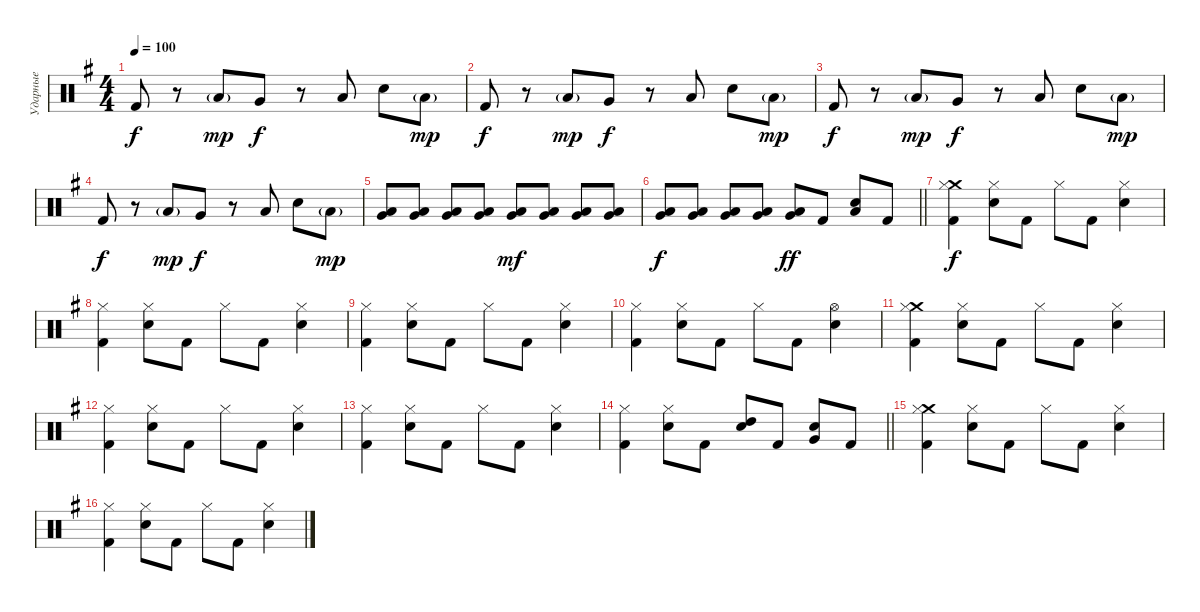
\track ("Ударные" "Ударные") {instrument percussion}
\staff {score}
\articulation defaults
\ts (4 4)
\tempo 100
\clef neutral
\ks eminor "Kick (hit) 2".8{dy f}
r.8 "Low Tom (hit)"{g}.8{dy mp} "Very Low Tom (hit)".8{dy f} r.8 "Low Floor Tom (hit)".8 "Electric Snare (hit)".8 "Low Floor Tom (hit)"{g}.8{dy mp} |
"Kick (hit) 2".8{dy f} r.8 "Low Tom (hit)"{g}.8{dy mp} "Very Low Tom (hit)".8{dy f} r.8 "Low Floor Tom (hit)".8 "Electric Snare (hit)".8 "Low Floor Tom (hit)"{g}.8{dy mp} |
"Kick (hit) 2".8{dy f} r.8 "Low Tom (hit)"{g}.8{dy mp} "Very Low Tom (hit)".8{dy f} r.8 "Low Floor Tom (hit)".8 "Electric Snare (hit)".8 "Low Floor Tom (hit)"{g}.8{dy mp} |
"Kick (hit) 2".8{dy f} r.8 "Low Tom (hit)"{g}.8{dy mp} "Very Low Tom (hit)".8{dy f} r.8 "Low Floor Tom (hit)".8 "Electric Snare (hit)".8 "Low Floor Tom (hit)"{g}.8{dy mp} |
("Low Floor Tom (hit)" "Very Low Tom (hit)").8 ("Low Floor Tom (hit)" "Very Low Tom (hit)").8 ("Low Floor Tom (hit)" "Very Low Tom (hit)").8 ("Low Floor Tom (hit)" "Very Low Tom (hit)").8 ("Low Floor Tom (hit)" "Very Low Tom (hit)").8{dy mf} ("Low Floor Tom (hit)" "Very Low Tom (hit)").8 ("Low Floor Tom (hit)" "Very Low Tom (hit)").8 ("Low Floor Tom (hit)" "Very Low Tom (hit)").8 |
\barLineRight lightlight
("Low Floor Tom (hit)" "Very Low Tom (hit)").8{dy f} ("Low Floor Tom (hit)" "Very Low Tom (hit)").8 ("Low Floor Tom (hit)" "Very Low Tom (hit)").8 ("Low Floor Tom (hit)" "Very Low Tom (hit)").8 ("Low Floor Tom (hit)" "Very Low Tom (hit)").8{dy ff} "Kick (hit) 2".8 ("Low Floor Tom (hit)" "Electric Snare (hit)").8 "Kick (hit) 2".8 |
\section ("" "")
("Crash medium (hit)" "Hi-Hat (closed)" "Kick (hit) 2").4{dy f} ("Hi-Hat (closed)" "Electric Snare (hit)").8 "Kick (hit) 2".8 "Hi-Hat (closed)".8 "Kick (hit) 2".8 ("Hi-Hat (closed)" "Electric Snare (hit)").4 |
("Hi-Hat (closed)" "Kick (hit) 2").4 ("Hi-Hat (closed)" "Electric Snare (hit)").8 "Kick (hit) 2".8 "Hi-Hat (closed)".8 "Kick (hit) 2".8 ("Hi-Hat (closed)" "Electric Snare (hit)").4 |
("Hi-Hat (closed)" "Kick (hit) 2").4 ("Hi-Hat (closed)" "Electric Snare (hit)").8 "Kick (hit) 2".8 "Hi-Hat (closed)".8 "Kick (hit) 2".8 ("Hi-Hat (closed)" "Electric Snare (hit)").4 |
("Hi-Hat (closed)" "Kick (hit) 2").4 ("Hi-Hat (closed)" "Electric Snare (hit)").8 "Kick (hit) 2".8 "Hi-Hat (closed)".8 "Kick (hit) 2".8 ("Hi-Hat (open)" "Electric Snare (hit)").4 |
("Crash medium (hit)" "Hi-Hat (closed)" "Kick (hit) 2").4 ("Hi-Hat (closed)" "Electric Snare (hit)").8 "Kick (hit) 2".8 "Hi-Hat (closed)".8 "Kick (hit) 2".8 ("Hi-Hat (closed)" "Electric Snare (hit)").4 |
("Hi-Hat (closed)" "Kick (hit) 2").4 ("Hi-Hat (closed)" "Electric Snare (hit)").8 "Kick (hit) 2".8 "Hi-Hat (closed)".8 "Kick (hit) 2".8 ("Hi-Hat (closed)" "Electric Snare (hit)").4 |
("Hi-Hat (closed)" "Kick (hit) 2").4 ("Hi-Hat (closed)" "Electric Snare (hit)").8 "Kick (hit) 2".8 "Hi-Hat (closed)".8 "Kick (hit) 2".8 ("Hi-Hat (closed)" "Electric Snare (hit)").4 |
\barLineRight lightlight
("Hi-Hat (closed)" "Kick (hit) 2").4 ("Hi-Hat (closed)" "Electric Snare (hit)").8 "Kick (hit) 2".8 ("High Tom (hit)" "Electric Snare (hit)").8 "Kick (hit) 2".8 ("Very Low Tom (hit)" "Electric Snare (hit)").8 "Kick (hit) 2".8 |
\section ("" "")
("Crash medium (hit)" "Hi-Hat (closed)" "Kick (hit) 2").4 ("Hi-Hat (closed)" "Electric Snare (hit)").8 "Kick (hit) 2".8 "Hi-Hat (closed)".8 "Kick (hit) 2".8 ("Hi-Hat (closed)" "Electric Snare (hit)").4 |
("Hi-Hat (closed)" "Kick (hit) 2").4 ("Hi-Hat (closed)" "Electric Snare (hit)").8 "Kick (hit) 2".8 "Hi-Hat (closed)".8 "Kick (hit) 2".8 ("Hi-Hat (closed)" "Electric Snare (hit)").4
